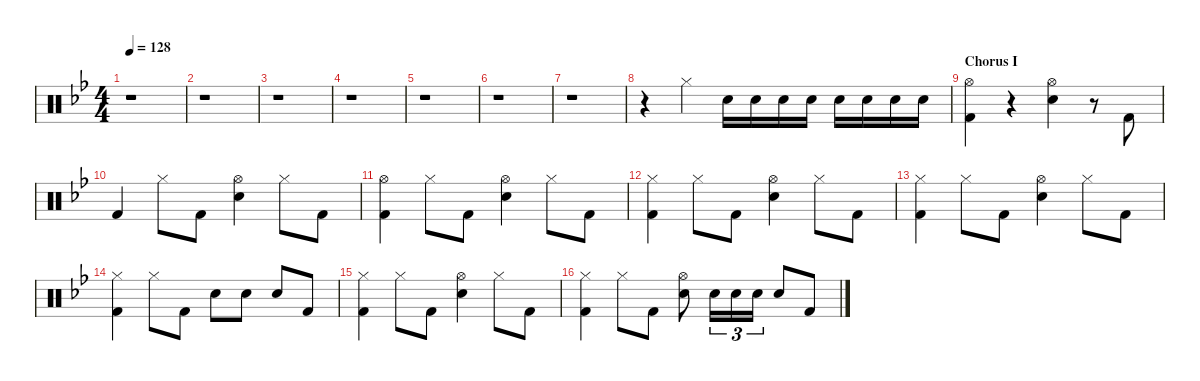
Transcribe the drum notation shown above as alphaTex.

\defaultSystemsLayout 4
\hideDynamics
\bracketExtendMode nobrackets
\singleTrackTrackNamePolicy hidden
\multiTrackTrackNamePolicy hidden
\firstSystemTrackNameMode fullname
\firstSystemTrackNameOrientation horizontal
\otherSystemsTrackNameOrientation horizontal
\track ("Drums" "drm.") {instrument percussion}
\staff {score}
\articulation defaults
\ts (4 4)
\tempo 128
\clef neutral
\ks bb
r.1{dy f beam Down} |
r.1{beam Down} |
r.1{beam Down} |
r.1{beam Down} |
r.1{beam Down} |
r.1{beam Down} |
r.1{beam Down} |
r.4{beam Down} "Hi-Hat (closed)"{acc forcenatural}.4{beam Down} "Snare (hit) 2"{acc forcenatural}.16{beam Down} "Snare (hit) 2"{acc forcenatural}.16{beam Down} "Snare (hit) 2"{acc forcenatural}.16{beam Down} "Snare (hit) 2"{acc forcenatural}.16{beam Down} "Snare (hit) 2"{acc forcenatural}.16{beam Down} "Snare (hit) 2"{acc forcenatural}.16{beam Down} "Snare (hit) 2"{acc forcenatural}.16{beam Down} "Snare (hit) 2"{acc forcenatural}.16{beam Down} |
\section ("" "Chorus I")
("Hi-Hat (open)"{acc forcenatural} "Kick (hit) 2"{acc forcenatural}).4{beam Down} r.4{beam Down} ("Hi-Hat (open)"{acc forcenatural} "Snare (hit) 2"{acc forcenatural}).4{beam Down} r.8{beam Down} "Kick (hit) 2"{acc forcenatural}.8{beam Up} |
"Kick (hit) 2"{acc forcenatural}.4{beam Up} "Hi-Hat (closed)"{acc forcenatural}.8{beam Down} "Kick (hit) 2"{acc forcenatural}.8{beam Down} ("Hi-Hat (open)"{acc forcenatural} "Snare (hit) 2"{acc forcenatural}).4{beam Down} "Hi-Hat (closed)"{acc forcenatural}.8{beam Down} "Kick (hit) 2"{acc forcenatural}.8{beam Down} |
("Hi-Hat (open)"{acc forcenatural} "Kick (hit) 2"{acc forcenatural}).4{beam Down} "Hi-Hat (closed)"{acc forcenatural}.8{beam Down} "Kick (hit) 2"{acc forcenatural}.8{beam Down} ("Hi-Hat (open)"{acc forcenatural} "Snare (hit) 2"{acc forcenatural}).4{beam Down} "Hi-Hat (closed)"{acc forcenatural}.8{beam Down} "Kick (hit) 2"{acc forcenatural}.8{beam Down} |
("Hi-Hat (closed)"{acc forcenatural} "Kick (hit) 2"{acc forcenatural}).4{beam Down} "Hi-Hat (closed)"{acc forcenatural}.8{beam Down} "Kick (hit) 2"{acc forcenatural}.8{beam Down} ("Hi-Hat (open)"{acc forcenatural} "Snare (hit) 2"{acc forcenatural}).4{beam Down} "Hi-Hat (closed)"{acc forcenatural}.8{beam Down} "Kick (hit) 2"{acc forcenatural}.8{beam Down} |
("Hi-Hat (closed)"{acc forcenatural} "Kick (hit) 2"{acc forcenatural}).4{beam Down} "Hi-Hat (closed)"{acc forcenatural}.8{beam Down} "Kick (hit) 2"{acc forcenatural}.8{beam Down} ("Hi-Hat (open)"{acc forcenatural} "Snare (hit) 2"{acc forcenatural}).4{beam Down} "Hi-Hat (closed)"{acc forcenatural}.8{beam Down} "Kick (hit) 2"{acc forcenatural}.8{beam Down} |
("Hi-Hat (closed)"{acc forcenatural} "Kick (hit) 2"{acc forcenatural}).4{beam Down} "Hi-Hat (closed)"{acc forcenatural}.8{beam Down} "Kick (hit) 2"{acc forcenatural}.8{beam Down} "Snare (hit) 2"{acc forcenatural}.8{beam Down} "Snare (hit) 2"{acc forcenatural}.8{beam Down} "Snare (hit) 2"{acc forcenatural}.8{beam Up} "Kick (hit) 2"{acc forcenatural}.8{beam Up} |
("Hi-Hat (closed)"{acc forcenatural} "Kick (hit) 2"{acc forcenatural}).4{beam Down} "Hi-Hat (closed)"{acc forcenatural}.8{beam Down} "Kick (hit) 2"{acc forcenatural}.8{beam Down} ("Hi-Hat (open)"{acc forcenatural} "Snare (hit) 2"{acc forcenatural}).4{beam Down} "Hi-Hat (closed)"{acc forcenatural}.8{beam Down} "Kick (hit) 2"{acc forcenatural}.8{beam Down} |
("Hi-Hat (closed)"{acc forcenatural} "Kick (hit) 2"{acc forcenatural}).4{beam Down} "Hi-Hat (closed)"{acc forcenatural}.8{beam Down} "Kick (hit) 2"{acc forcenatural}.8{beam Down} ("Hi-Hat (open)"{acc forcenatural} "Snare (hit) 2"{acc forcenatural}).8{beam Down} "Snare (hit) 2"{acc forcenatural}.16{tu (3 2) beam Down} "Snare (hit) 2"{acc forcenatural}.16{tu (3 2) beam Down} "Snare (hit) 2"{acc forcenatural}.16{tu (3 2) beam Down} "Snare (hit) 2"{acc forcenatural}.8{beam Up} "Kick (hit) 2"{acc forcenatural}.8{beam Up}
